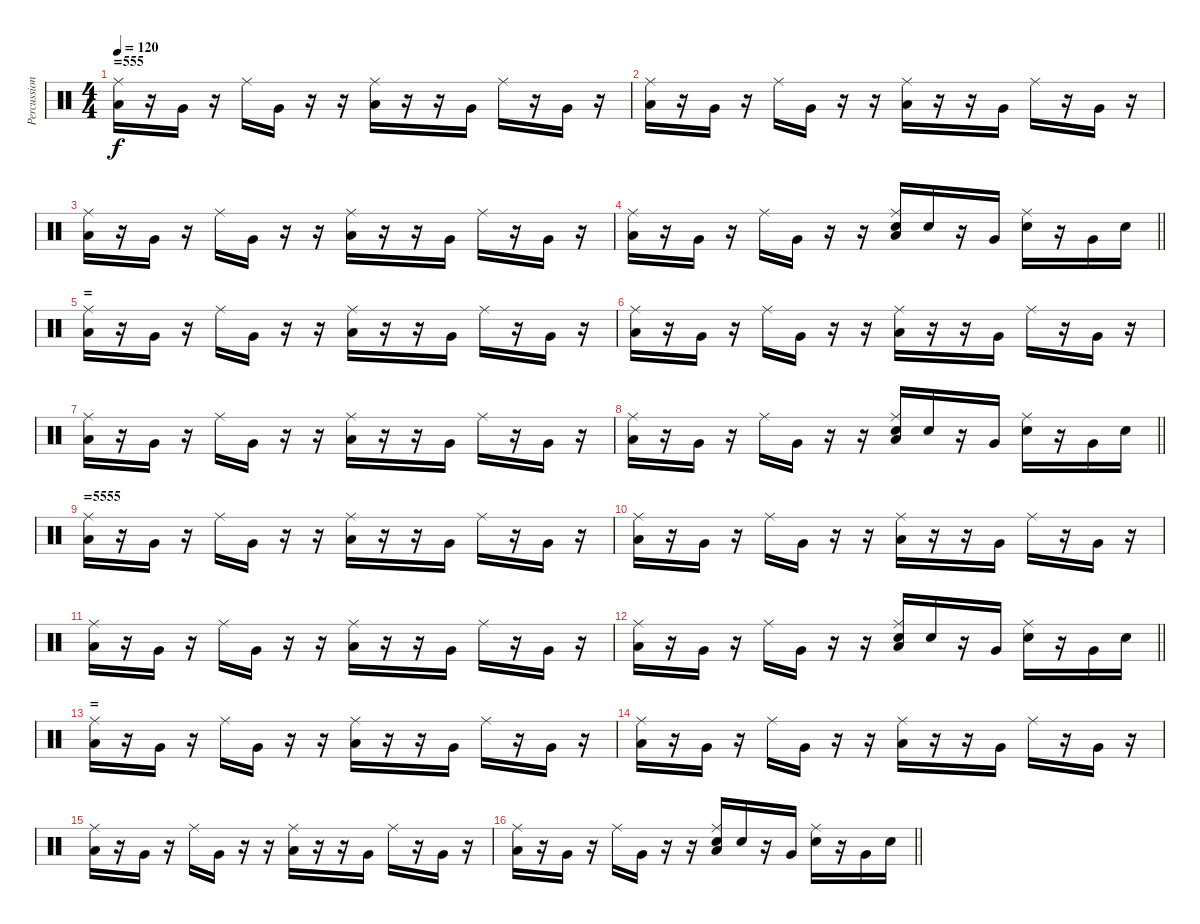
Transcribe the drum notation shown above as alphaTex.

\track ("Percussion" "Percussion") {instrument percussion}
\staff {score}
\articulation defaults
\ts (4 4)
\section ("" "=555")
\tempo 120
\clef neutral
\ks c
("Low Floor Tom (hit)" "Ride (middle)").16{dy f} r.16 "Very Low Tom (hit)".16 r.16 "Ride (middle)".16 "Very Low Tom (hit)".16 r.16 r.16 ("Low Floor Tom (hit)" "Ride (middle)").16 r.16 r.16 "Very Low Tom (hit)".16 "Ride (middle)".16 r.16 "Very Low Tom (hit)".16 r.16 |
("Low Floor Tom (hit)" "Ride (middle)").16 r.16 "Very Low Tom (hit)".16 r.16 "Ride (middle)".16 "Very Low Tom (hit)".16 r.16 r.16 ("Low Floor Tom (hit)" "Ride (middle)").16 r.16 r.16 "Very Low Tom (hit)".16 "Ride (middle)".16 r.16 "Very Low Tom (hit)".16 r.16 |
("Low Floor Tom (hit)" "Ride (middle)").16 r.16 "Very Low Tom (hit)".16 r.16 "Ride (middle)".16 "Very Low Tom (hit)".16 r.16 r.16 ("Low Floor Tom (hit)" "Ride (middle)").16 r.16 r.16 "Very Low Tom (hit)".16 "Ride (middle)".16 r.16 "Very Low Tom (hit)".16 r.16 |
\barLineRight lightlight
("Low Floor Tom (hit)" "Ride (middle)").16 r.16 "Very Low Tom (hit)".16 r.16 "Ride (middle)".16 "Very Low Tom (hit)".16 r.16 r.16 ("Low Floor Tom (hit)" "Ride (middle)" "Electric Snare (hit)").16 "Electric Snare (hit)".16 r.16 "Very Low Tom (hit)".16 ("Ride (middle)" "Electric Snare (hit)").16 r.16 "Very Low Tom (hit)".16 "Electric Snare (hit)".16 |
\section ("" "=")
("Low Floor Tom (hit)" "Ride (middle)").16 r.16 "Very Low Tom (hit)".16 r.16 "Ride (middle)".16 "Very Low Tom (hit)".16 r.16 r.16 ("Low Floor Tom (hit)" "Ride (middle)").16 r.16 r.16 "Very Low Tom (hit)".16 "Ride (middle)".16 r.16 "Very Low Tom (hit)".16 r.16 |
("Low Floor Tom (hit)" "Ride (middle)").16 r.16 "Very Low Tom (hit)".16 r.16 "Ride (middle)".16 "Very Low Tom (hit)".16 r.16 r.16 ("Low Floor Tom (hit)" "Ride (middle)").16 r.16 r.16 "Very Low Tom (hit)".16 "Ride (middle)".16 r.16 "Very Low Tom (hit)".16 r.16 |
("Low Floor Tom (hit)" "Ride (middle)").16 r.16 "Very Low Tom (hit)".16 r.16 "Ride (middle)".16 "Very Low Tom (hit)".16 r.16 r.16 ("Low Floor Tom (hit)" "Ride (middle)").16 r.16 r.16 "Very Low Tom (hit)".16 "Ride (middle)".16 r.16 "Very Low Tom (hit)".16 r.16 |
\barLineRight lightlight
("Low Floor Tom (hit)" "Ride (middle)").16 r.16 "Very Low Tom (hit)".16 r.16 "Ride (middle)".16 "Very Low Tom (hit)".16 r.16 r.16 ("Low Floor Tom (hit)" "Ride (middle)" "Electric Snare (hit)").16 "Electric Snare (hit)".16 r.16 "Very Low Tom (hit)".16 ("Ride (middle)" "Electric Snare (hit)").16 r.16 "Very Low Tom (hit)".16 "Electric Snare (hit)".16 |
\section ("" "=5555")
("Low Floor Tom (hit)" "Ride (middle)").16 r.16 "Very Low Tom (hit)".16 r.16 "Ride (middle)".16 "Very Low Tom (hit)".16 r.16 r.16 ("Low Floor Tom (hit)" "Ride (middle)").16 r.16 r.16 "Very Low Tom (hit)".16 "Ride (middle)".16 r.16 "Very Low Tom (hit)".16 r.16 |
("Low Floor Tom (hit)" "Ride (middle)").16 r.16 "Very Low Tom (hit)".16 r.16 "Ride (middle)".16 "Very Low Tom (hit)".16 r.16 r.16 ("Low Floor Tom (hit)" "Ride (middle)").16 r.16 r.16 "Very Low Tom (hit)".16 "Ride (middle)".16 r.16 "Very Low Tom (hit)".16 r.16 |
("Low Floor Tom (hit)" "Ride (middle)").16 r.16 "Very Low Tom (hit)".16 r.16 "Ride (middle)".16 "Very Low Tom (hit)".16 r.16 r.16 ("Low Floor Tom (hit)" "Ride (middle)").16 r.16 r.16 "Very Low Tom (hit)".16 "Ride (middle)".16 r.16 "Very Low Tom (hit)".16 r.16 |
\barLineRight lightlight
("Low Floor Tom (hit)" "Ride (middle)").16 r.16 "Very Low Tom (hit)".16 r.16 "Ride (middle)".16 "Very Low Tom (hit)".16 r.16 r.16 ("Low Floor Tom (hit)" "Ride (middle)" "Electric Snare (hit)").16 "Electric Snare (hit)".16 r.16 "Very Low Tom (hit)".16 ("Ride (middle)" "Electric Snare (hit)").16 r.16 "Very Low Tom (hit)".16 "Electric Snare (hit)".16 |
\section ("" "=")
("Low Floor Tom (hit)" "Ride (middle)").16 r.16 "Very Low Tom (hit)".16 r.16 "Ride (middle)".16 "Very Low Tom (hit)".16 r.16 r.16 ("Low Floor Tom (hit)" "Ride (middle)").16 r.16 r.16 "Very Low Tom (hit)".16 "Ride (middle)".16 r.16 "Very Low Tom (hit)".16 r.16 |
("Low Floor Tom (hit)" "Ride (middle)").16 r.16 "Very Low Tom (hit)".16 r.16 "Ride (middle)".16 "Very Low Tom (hit)".16 r.16 r.16 ("Low Floor Tom (hit)" "Ride (middle)").16 r.16 r.16 "Very Low Tom (hit)".16 "Ride (middle)".16 r.16 "Very Low Tom (hit)".16 r.16 |
("Low Floor Tom (hit)" "Ride (middle)").16 r.16 "Very Low Tom (hit)".16 r.16 "Ride (middle)".16 "Very Low Tom (hit)".16 r.16 r.16 ("Low Floor Tom (hit)" "Ride (middle)").16 r.16 r.16 "Very Low Tom (hit)".16 "Ride (middle)".16 r.16 "Very Low Tom (hit)".16 r.16 |
\barLineRight lightlight
("Low Floor Tom (hit)" "Ride (middle)").16 r.16 "Very Low Tom (hit)".16 r.16 "Ride (middle)".16 "Very Low Tom (hit)".16 r.16 r.16 ("Low Floor Tom (hit)" "Ride (middle)" "Electric Snare (hit)").16 "Electric Snare (hit)".16 r.16 "Very Low Tom (hit)".16 ("Ride (middle)" "Electric Snare (hit)").16 r.16 "Very Low Tom (hit)".16 "Electric Snare (hit)".16
